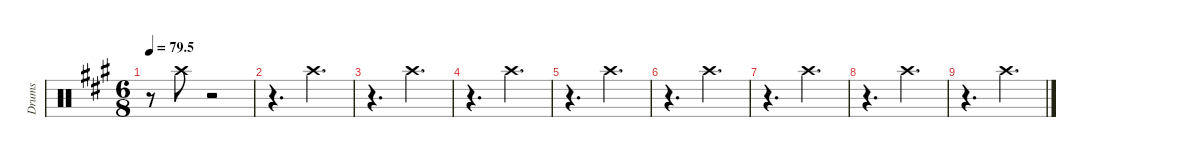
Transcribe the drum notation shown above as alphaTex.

\defaultSystemsLayout 4
\hideDynamics
\bracketExtendMode nobrackets
\otherSystemsTrackNameOrientation horizontal
\track ("Left crash" "Drums") {instrument percussion}
\staff {score}
\articulation defaults
\ts (6 8)
\tempo
79.5
\accidentals auto
\clef neutral
\ottava regular
\simile none
\scale
0.333333
\ks a
r.8{dy f} "Crash high (hit)"{acc forcenatural}.8 r.2 |
\scale
0.333333 r.4{d} "Crash high (hit)"{acc forcenatural}.4{d} |
\scale
0.333333 r.4{d} "Crash high (hit)"{acc forcenatural}.4{d} |
\scale
0.333333 r.4{d} "Crash high (hit)"{acc forcenatural}.4{d} |
\scale
0.333333 r.4{d} "Crash high (hit)"{acc forcenatural}.4{d} |
\scale
0.333333 r.4{d} "Crash high (hit)"{acc forcenatural}.4{d} |
\scale
0.333333 r.4{d} "Crash high (hit)"{acc forcenatural}.4{d} |
\scale
0.333333 r.4{d} "Crash high (hit)"{acc forcenatural}.4{d} |
\scale
0.333333 r.4{d} "Crash high (hit)"{acc forcenatural}.4{d} |
\scale
0.333333 |
\scale
0.333333 |
\scale
0.333333
